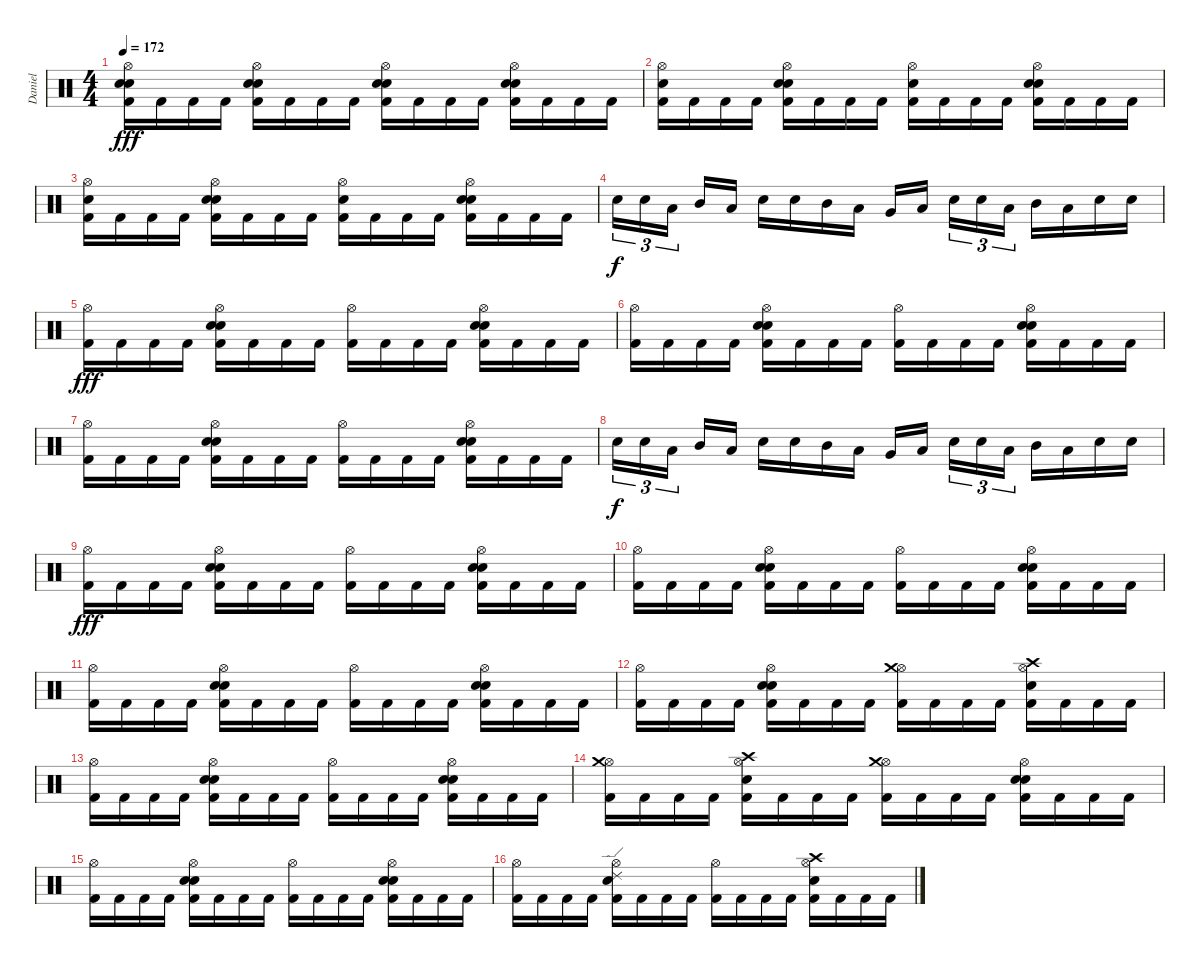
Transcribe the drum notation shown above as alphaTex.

\track ("Daniel" "Daniel") {instrument percussion}
\staff {score}
\articulation defaults
\ts (4 4)
\tempo 172
\clef neutral
\ks c
("Hi-Hat (open)" "Electric Snare (hit)" "Snare (hit) 2" "Kick (hit) 2").16{dy fff} "Kick (hit) 2".16 "Kick (hit) 2".16 "Kick (hit) 2".16 ("Hi-Hat (open)" "Electric Snare (hit)" "Snare (hit) 2" "Kick (hit) 2").16 "Kick (hit) 2".16 "Kick (hit) 2".16 "Kick (hit) 2".16 ("Hi-Hat (open)" "Electric Snare (hit)" "Snare (hit) 2" "Kick (hit) 2").16 "Kick (hit) 2".16 "Kick (hit) 2".16 "Kick (hit) 2".16 ("Hi-Hat (open)" "Electric Snare (hit)" "Snare (hit) 2" "Kick (hit) 2").16 "Kick (hit) 2".16 "Kick (hit) 2".16 "Kick (hit) 2".16 |
("Hi-Hat (open)" "Snare (hit) 2" "Kick (hit) 2").16 "Kick (hit) 2".16 "Kick (hit) 2".16 "Kick (hit) 2".16 ("Hi-Hat (open)" "Electric Snare (hit)" "Snare (hit) 2" "Kick (hit) 2").16 "Kick (hit) 2".16 "Kick (hit) 2".16 "Kick (hit) 2".16 ("Hi-Hat (open)" "Snare (hit) 2" "Kick (hit) 2").16 "Kick (hit) 2".16 "Kick (hit) 2".16 "Kick (hit) 2".16 ("Hi-Hat (open)" "Electric Snare (hit)" "Snare (hit) 2" "Kick (hit) 2").16 "Kick (hit) 2".16 "Kick (hit) 2".16 "Kick (hit) 2".16 |
("Hi-Hat (open)" "Snare (hit) 2" "Kick (hit) 2").16 "Kick (hit) 2".16 "Kick (hit) 2".16 "Kick (hit) 2".16 ("Hi-Hat (open)" "Electric Snare (hit)" "Snare (hit) 2" "Kick (hit) 2").16 "Kick (hit) 2".16 "Kick (hit) 2".16 "Kick (hit) 2".16 ("Hi-Hat (open)" "Snare (hit) 2" "Kick (hit) 2").16 "Kick (hit) 2".16 "Kick (hit) 2".16 "Kick (hit) 2".16 ("Hi-Hat (open)" "Electric Snare (hit)" "Snare (hit) 2" "Kick (hit) 2").16 "Kick (hit) 2".16 "Kick (hit) 2".16 "Kick (hit) 2".16 |
"Electric Snare (hit)".16{tu (3 2) dy f} "Electric Snare (hit)".16{tu (3 2)} "Low Tom (hit)".16{tu (3 2) beam splitsecondary} "Mid Tom (hit)".16 "Low Tom (hit)".16 "Electric Snare (hit)".16 "Electric Snare (hit)".16 "Mid Tom (hit)".16 "Low Tom (hit)".16 "Very Low Tom (hit)".16 "Low Floor Tom (hit)".16{beam splitsecondary} "Electric Snare (hit)".16{tu (3 2)} "Electric Snare (hit)".16{tu (3 2)} "Low Tom (hit)".16{tu (3 2)} "Mid Tom (hit)".16 "Low Tom (hit)".16 "Electric Snare (hit)".16 "Electric Snare (hit)".16 |
("Hi-Hat (open)" "Kick (hit) 2").16{dy fff} "Kick (hit) 2".16 "Kick (hit) 2".16 "Kick (hit) 2".16 ("Hi-Hat (open)" "Electric Snare (hit)" "Snare (hit) 2" "Kick (hit) 2").16 "Kick (hit) 2".16 "Kick (hit) 2".16 "Kick (hit) 2".16 ("Hi-Hat (open)" "Kick (hit) 2").16 "Kick (hit) 2".16 "Kick (hit) 2".16 "Kick (hit) 2".16 ("Hi-Hat (open)" "Electric Snare (hit)" "Snare (hit) 2" "Kick (hit) 2").16 "Kick (hit) 2".16 "Kick (hit) 2".16 "Kick (hit) 2".16 |
("Hi-Hat (open)" "Kick (hit) 2").16 "Kick (hit) 2".16 "Kick (hit) 2".16 "Kick (hit) 2".16 ("Hi-Hat (open)" "Electric Snare (hit)" "Snare (hit) 2" "Kick (hit) 2").16 "Kick (hit) 2".16 "Kick (hit) 2".16 "Kick (hit) 2".16 ("Hi-Hat (open)" "Kick (hit) 2").16 "Kick (hit) 2".16 "Kick (hit) 2".16 "Kick (hit) 2".16 ("Hi-Hat (open)" "Electric Snare (hit)" "Snare (hit) 2" "Kick (hit) 2").16 "Kick (hit) 2".16 "Kick (hit) 2".16 "Kick (hit) 2".16 |
("Hi-Hat (open)" "Kick (hit) 2").16 "Kick (hit) 2".16 "Kick (hit) 2".16 "Kick (hit) 2".16 ("Hi-Hat (open)" "Electric Snare (hit)" "Snare (hit) 2" "Kick (hit) 2").16 "Kick (hit) 2".16 "Kick (hit) 2".16 "Kick (hit) 2".16 ("Hi-Hat (open)" "Kick (hit) 2").16 "Kick (hit) 2".16 "Kick (hit) 2".16 "Kick (hit) 2".16 ("Hi-Hat (open)" "Electric Snare (hit)" "Snare (hit) 2" "Kick (hit) 2").16 "Kick (hit) 2".16 "Kick (hit) 2".16 "Kick (hit) 2".16 |
"Electric Snare (hit)".16{tu (3 2) dy f} "Electric Snare (hit)".16{tu (3 2)} "Low Tom (hit)".16{tu (3 2) beam splitsecondary} "Mid Tom (hit)".16 "Low Tom (hit)".16 "Electric Snare (hit)".16 "Electric Snare (hit)".16 "Mid Tom (hit)".16 "Low Tom (hit)".16 "Very Low Tom (hit)".16 "Low Floor Tom (hit)".16{beam splitsecondary} "Electric Snare (hit)".16{tu (3 2)} "Electric Snare (hit)".16{tu (3 2)} "Low Tom (hit)".16{tu (3 2)} "Mid Tom (hit)".16 "Low Tom (hit)".16 "Electric Snare (hit)".16 "Electric Snare (hit)".16 |
("Hi-Hat (open)" "Kick (hit) 2").16{dy fff} "Kick (hit) 2".16 "Kick (hit) 2".16 "Kick (hit) 2".16 ("Hi-Hat (open)" "Electric Snare (hit)" "Snare (hit) 2" "Kick (hit) 2").16 "Kick (hit) 2".16 "Kick (hit) 2".16 "Kick (hit) 2".16 ("Hi-Hat (open)" "Kick (hit) 2").16 "Kick (hit) 2".16 "Kick (hit) 2".16 "Kick (hit) 2".16 ("Hi-Hat (open)" "Electric Snare (hit)" "Snare (hit) 2" "Kick (hit) 2").16 "Kick (hit) 2".16 "Kick (hit) 2".16 "Kick (hit) 2".16 |
("Hi-Hat (open)" "Kick (hit) 2").16 "Kick (hit) 2".16 "Kick (hit) 2".16 "Kick (hit) 2".16 ("Hi-Hat (open)" "Electric Snare (hit)" "Snare (hit) 2" "Kick (hit) 2").16 "Kick (hit) 2".16 "Kick (hit) 2".16 "Kick (hit) 2".16 ("Hi-Hat (open)" "Kick (hit) 2").16 "Kick (hit) 2".16 "Kick (hit) 2".16 "Kick (hit) 2".16 ("Hi-Hat (open)" "Electric Snare (hit)" "Snare (hit) 2" "Kick (hit) 2").16 "Kick (hit) 2".16 "Kick (hit) 2".16 "Kick (hit) 2".16 |
("Hi-Hat (open)" "Kick (hit) 2").16 "Kick (hit) 2".16 "Kick (hit) 2".16 "Kick (hit) 2".16 ("Hi-Hat (open)" "Electric Snare (hit)" "Snare (hit) 2" "Kick (hit) 2").16 "Kick (hit) 2".16 "Kick (hit) 2".16 "Kick (hit) 2".16 ("Hi-Hat (open)" "Kick (hit) 2").16 "Kick (hit) 2".16 "Kick (hit) 2".16 "Kick (hit) 2".16 ("Hi-Hat (open)" "Electric Snare (hit)" "Snare (hit) 2" "Kick (hit) 2").16 "Kick (hit) 2".16 "Kick (hit) 2".16 "Kick (hit) 2".16 |
("Hi-Hat (open)" "Kick (hit) 2").16 "Kick (hit) 2".16 "Kick (hit) 2".16 "Kick (hit) 2".16 ("Hi-Hat (open)" "Electric Snare (hit)" "Snare (hit) 2" "Kick (hit) 2").16 "Kick (hit) 2".16 "Kick (hit) 2".16 "Kick (hit) 2".16 ("Hi-Hat (open)" "Crash medium (hit)" "Kick (hit) 2").16 "Kick (hit) 2".16 "Kick (hit) 2".16 "Kick (hit) 2".16 ("Hi-Hat (open)" "Electric Snare (hit)" "Crash high (hit)" "Kick (hit) 2").16 "Kick (hit) 2".16 "Kick (hit) 2".16 "Kick (hit) 2".16 |
("Hi-Hat (open)" "Kick (hit) 2").16 "Kick (hit) 2".16 "Kick (hit) 2".16 "Kick (hit) 2".16 ("Hi-Hat (open)" "Electric Snare (hit)" "Snare (hit) 2" "Kick (hit) 2").16 "Kick (hit) 2".16 "Kick (hit) 2".16 "Kick (hit) 2".16 ("Hi-Hat (open)" "Kick (hit) 2").16 "Kick (hit) 2".16 "Kick (hit) 2".16 "Kick (hit) 2".16 ("Hi-Hat (open)" "Electric Snare (hit)" "Snare (hit) 2" "Kick (hit) 2").16 "Kick (hit) 2".16 "Kick (hit) 2".16 "Kick (hit) 2".16 |
("Hi-Hat (open)" "Crash medium (hit)" "Kick (hit) 2").16 "Kick (hit) 2".16 "Kick (hit) 2".16 "Kick (hit) 2".16 ("Hi-Hat (open)" "Electric Snare (hit)" "Crash high (hit)" "Kick (hit) 2").16 "Kick (hit) 2".16 "Kick (hit) 2".16 "Kick (hit) 2".16 ("Hi-Hat (open)" "Crash medium (hit)" "Kick (hit) 2").16 "Kick (hit) 2".16 "Kick (hit) 2".16 "Kick (hit) 2".16 ("Hi-Hat (open)" "Electric Snare (hit)" "Snare (hit) 2" "Kick (hit) 2").16 "Kick (hit) 2".16 "Kick (hit) 2".16 "Kick (hit) 2".16 |
("Hi-Hat (open)" "Kick (hit) 2").16 "Kick (hit) 2".16 "Kick (hit) 2".16 "Kick (hit) 2".16 ("Hi-Hat (open)" "Electric Snare (hit)" "Snare (hit) 2" "Kick (hit) 2").16 "Kick (hit) 2".16 "Kick (hit) 2".16 "Kick (hit) 2".16 ("Hi-Hat (open)" "Kick (hit) 2").16 "Kick (hit) 2".16 "Kick (hit) 2".16 "Kick (hit) 2".16 ("Hi-Hat (open)" "Electric Snare (hit)" "Snare (hit) 2" "Kick (hit) 2").16 "Kick (hit) 2".16 "Kick (hit) 2".16 "Kick (hit) 2".16 |
("Hi-Hat (open)" "Kick (hit) 2").16 "Kick (hit) 2".16 "Kick (hit) 2".16 "Kick (hit) 2".16 ("Hi-Hat (open)" "Electric Snare (hit)" "Ride (edge) 2" "Kick (hit) 2").16 "Kick (hit) 2".16 "Kick (hit) 2".16 "Kick (hit) 2".16 ("Hi-Hat (open)" "Kick (hit) 2").16 "Kick (hit) 2".16 "Kick (hit) 2".16 "Kick (hit) 2".16 ("Hi-Hat (open)" "Electric Snare (hit)" "Crash high (hit)" "Kick (hit) 2").16 "Kick (hit) 2".16 "Kick (hit) 2".16 "Kick (hit) 2".16
